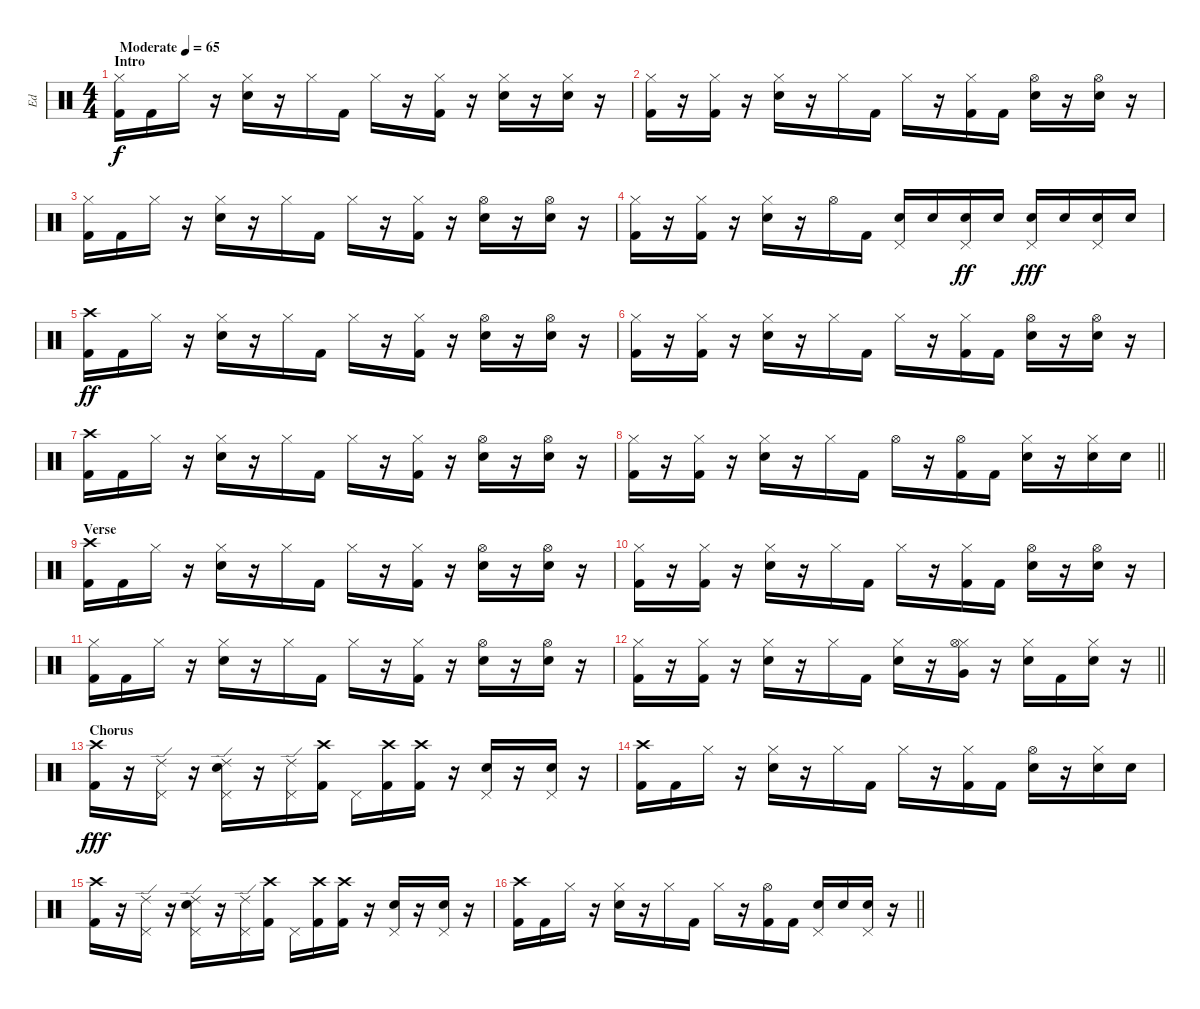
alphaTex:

\track ("Ed" "Ed") {instrument percussion}
\staff {score}
\articulation defaults
\ts (4 4)
\section ("" "Intro")
\tempo (65 "Moderate")
\clef neutral
\ks c
("Hi-Hat (closed)" "Kick (hit) 2").16{dy f} "Kick (hit) 2".16 "Hi-Hat (closed)".16 r.16 ("Hi-Hat (closed)" "Electric Snare (hit)").16 r.16 "Hi-Hat (closed)".16 "Kick (hit) 2".16 "Hi-Hat (closed)".16 r.16 ("Hi-Hat (closed)" "Kick (hit) 2").16 r.16 ("Hi-Hat (closed)" "Electric Snare (hit)").16 r.16 ("Hi-Hat (closed)" "Electric Snare (hit)").16 r.16 |
("Hi-Hat (closed)" "Kick (hit) 2").16 r.16 ("Hi-Hat (closed)" "Kick (hit) 2").16 r.16 ("Hi-Hat (closed)" "Electric Snare (hit)").16 r.16 "Hi-Hat (closed)".16 "Kick (hit) 2".16 "Hi-Hat (closed)".16 r.16 ("Hi-Hat (closed)" "Kick (hit) 2").16 "Kick (hit) 2".16 ("Hi-Hat (open)" "Electric Snare (hit)").16 r.16 ("Hi-Hat (open)" "Electric Snare (hit)").16 r.16 |
("Hi-Hat (closed)" "Kick (hit) 2").16 "Kick (hit) 2".16 "Hi-Hat (closed)".16 r.16 ("Hi-Hat (closed)" "Electric Snare (hit)").16 r.16 "Hi-Hat (closed)".16 "Kick (hit) 2".16 "Hi-Hat (closed)".16 r.16 ("Hi-Hat (closed)" "Kick (hit) 2").16 r.16 ("Hi-Hat (open)" "Electric Snare (hit)").16 r.16 ("Hi-Hat (open)" "Electric Snare (hit)").16 r.16 |
("Hi-Hat (closed)" "Kick (hit) 2").16 r.16 ("Hi-Hat (closed)" "Kick (hit) 2").16 r.16 ("Hi-Hat (closed)" "Electric Snare (hit)").16 r.16 "Hi-Hat (open)".16 "Kick (hit) 2".16 ("Electric Snare (hit)" "Pedal Hi-Hat (hit)").16 "Electric Snare (hit)".16 ("Electric Snare (hit)" "Pedal Hi-Hat (hit)").16{dy ff} "Electric Snare (hit)".16 ("Electric Snare (hit)" "Pedal Hi-Hat (hit)").16{dy fff} "Electric Snare (hit)".16 ("Electric Snare (hit)" "Pedal Hi-Hat (hit)").16 "Electric Snare (hit)".16 |
("Crash high (hit)" "Kick (hit) 2").16{dy ff} "Kick (hit) 2".16 "Hi-Hat (closed)".16 r.16 ("Hi-Hat (closed)" "Electric Snare (hit)").16 r.16 "Hi-Hat (closed)".16 "Kick (hit) 2".16 "Hi-Hat (closed)".16 r.16 ("Hi-Hat (closed)" "Kick (hit) 2").16 r.16 ("Hi-Hat (open)" "Electric Snare (hit)").16 r.16 ("Hi-Hat (open)" "Electric Snare (hit)").16 r.16 |
("Hi-Hat (closed)" "Kick (hit) 2").16 r.16 ("Hi-Hat (closed)" "Kick (hit) 2").16 r.16 ("Hi-Hat (closed)" "Electric Snare (hit)").16 r.16 "Hi-Hat (closed)".16 "Kick (hit) 2".16 "Hi-Hat (closed)".16 r.16 ("Hi-Hat (closed)" "Kick (hit) 2").16 "Kick (hit) 2".16 ("Hi-Hat (open)" "Electric Snare (hit)").16 r.16 ("Hi-Hat (open)" "Electric Snare (hit)").16 r.16 |
("Crash high (hit)" "Kick (hit) 2").16 "Kick (hit) 2".16 "Hi-Hat (closed)".16 r.16 ("Hi-Hat (closed)" "Electric Snare (hit)").16 r.16 "Hi-Hat (closed)".16 "Kick (hit) 2".16 "Hi-Hat (closed)".16 r.16 ("Hi-Hat (closed)" "Kick (hit) 2").16 r.16 ("Hi-Hat (open)" "Electric Snare (hit)").16 r.16 ("Hi-Hat (open)" "Electric Snare (hit)").16 r.16 |
\barLineRight lightlight
("Hi-Hat (closed)" "Kick (hit) 2").16 r.16 ("Hi-Hat (closed)" "Kick (hit) 2").16 r.16 ("Hi-Hat (closed)" "Electric Snare (hit)").16 r.16 "Hi-Hat (closed)".16 "Kick (hit) 2".16 "Hi-Hat (open)".16 r.16 ("Hi-Hat (open)" "Kick (hit) 2").16 "Kick (hit) 2".16 ("Hi-Hat (closed)" "Electric Snare (hit)").16 r.16 ("Hi-Hat (closed)" "Electric Snare (hit)").16 "Electric Snare (hit)".16 |
\section ("" "Verse")
("Crash high (hit)" "Kick (hit) 2").16 "Kick (hit) 2".16 "Hi-Hat (closed)".16 r.16 ("Hi-Hat (closed)" "Electric Snare (hit)").16 r.16 "Hi-Hat (closed)".16 "Kick (hit) 2".16 "Hi-Hat (closed)".16 r.16 ("Hi-Hat (closed)" "Kick (hit) 2").16 r.16 ("Hi-Hat (open)" "Electric Snare (hit)").16 r.16 ("Hi-Hat (open)" "Electric Snare (hit)").16 r.16 |
("Hi-Hat (closed)" "Kick (hit) 2").16 r.16 ("Hi-Hat (closed)" "Kick (hit) 2").16 r.16 ("Hi-Hat (closed)" "Electric Snare (hit)").16 r.16 "Hi-Hat (closed)".16 "Kick (hit) 2".16 "Hi-Hat (closed)".16 r.16 ("Hi-Hat (closed)" "Kick (hit) 2").16 "Kick (hit) 2".16 ("Hi-Hat (open)" "Electric Snare (hit)").16 r.16 ("Hi-Hat (open)" "Electric Snare (hit)").16 r.16 |
("Hi-Hat (closed)" "Kick (hit) 2").16 "Kick (hit) 2".16 "Hi-Hat (closed)".16 r.16 ("Hi-Hat (closed)" "Electric Snare (hit)").16 r.16 "Hi-Hat (closed)".16 "Kick (hit) 2".16 "Hi-Hat (closed)".16 r.16 ("Hi-Hat (closed)" "Kick (hit) 2").16 r.16 ("Hi-Hat (open)" "Electric Snare (hit)").16 r.16 ("Hi-Hat (open)" "Electric Snare (hit)").16 r.16 |
\barLineRight lightlight
("Hi-Hat (closed)" "Kick (hit) 2").16 r.16 ("Hi-Hat (closed)" "Kick (hit) 2").16 r.16 ("Hi-Hat (closed)" "Electric Snare (hit)").16 r.16 "Hi-Hat (closed)".16 "Kick (hit) 2".16 ("Hi-Hat (closed)" "Electric Snare (hit)").16 r.16 ("Hi-Hat (closed)" "Hi-Hat (open)" "Very Low Tom (hit)").16 r.16 ("Hi-Hat (closed)" "Electric Snare (hit)").16 "Kick (hit) 2".16 ("Hi-Hat (closed)" "Electric Snare (hit)").16 r.16 |
\section ("" "Chorus")
("Crash high (hit)" "Kick (hit) 2").16{dy fff} r.16 ("Ride (edge) 2" "Pedal Hi-Hat (hit)").16 r.16 ("Ride (edge) 2" "Electric Snare (hit)" "Pedal Hi-Hat (hit)").16 r.16 ("Ride (edge) 2" "Pedal Hi-Hat (hit)").16 ("Crash high (hit)" "Kick (hit) 2").16 "Pedal Hi-Hat (hit)".16 ("Crash high (hit)" "Kick (hit) 2").16 ("Crash high (hit)" "Kick (hit) 2").16 r.16 ("Electric Snare (hit)" "Pedal Hi-Hat (hit)").16 r.16 ("Electric Snare (hit)" "Pedal Hi-Hat (hit)").16 r.16 |
("Crash high (hit)" "Kick (hit) 2").16 "Kick (hit) 2".16 "Hi-Hat (closed)".16 r.16 ("Hi-Hat (closed)" "Electric Snare (hit)").16 r.16 "Hi-Hat (closed)".16 "Kick (hit) 2".16 "Hi-Hat (closed)".16 r.16 ("Hi-Hat (closed)" "Kick (hit) 2").16 "Kick (hit) 2".16 ("Hi-Hat (open)" "Electric Snare (hit)").16 r.16 ("Hi-Hat (closed)" "Electric Snare (hit)").16 "Electric Snare (hit)".16 |
("Crash high (hit)" "Kick (hit) 2").16 r.16 ("Ride (edge) 2" "Pedal Hi-Hat (hit)").16 r.16 ("Ride (edge) 2" "Electric Snare (hit)" "Pedal Hi-Hat (hit)").16 r.16 ("Ride (edge) 2" "Pedal Hi-Hat (hit)").16 ("Crash high (hit)" "Kick (hit) 2").16 "Pedal Hi-Hat (hit)".16 ("Crash high (hit)" "Kick (hit) 2").16 ("Crash high (hit)" "Kick (hit) 2").16 r.16 ("Electric Snare (hit)" "Pedal Hi-Hat (hit)").16 r.16 ("Electric Snare (hit)" "Pedal Hi-Hat (hit)").16 r.16 |
\barLineRight lightlight
("Crash high (hit)" "Kick (hit) 2").16 "Kick (hit) 2".16 "Hi-Hat (closed)".16 r.16 ("Hi-Hat (closed)" "Electric Snare (hit)").16 r.16 "Hi-Hat (closed)".16 "Kick (hit) 2".16 "Hi-Hat (closed)".16 r.16 ("Hi-Hat (open)" "Kick (hit) 2").16 "Kick (hit) 2".16 ("Electric Snare (hit)" "Pedal Hi-Hat (hit)").16 "Electric Snare (hit)".16 ("Electric Snare (hit)" "Pedal Hi-Hat (hit)").16 r.16
